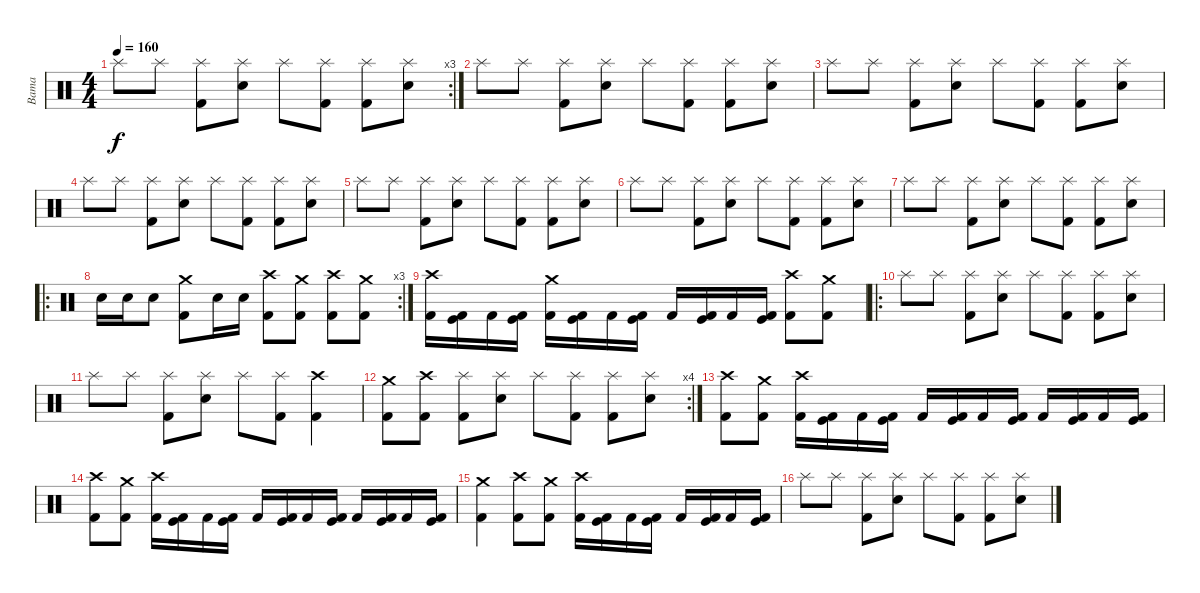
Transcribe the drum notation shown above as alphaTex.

\track ("Bama" "Bama") {instrument percussion}
\staff {score}
\articulation defaults
\rc 3
\ts (4 4)
\tempo 160
\clef neutral
\ks c "Splash (hit)".8{dy f} "Splash (hit)".8
("Splash (hit)" "Kick (hit) 2").8 ("Splash (hit)" "Electric Snare (hit)").8 "Splash (hit)".8 ("Splash (hit)" "Kick (hit) 2").8 ("Splash (hit)" "Kick (hit) 2").8 ("Splash (hit)" "Electric Snare (hit)").8 |
"Splash (hit)".8 "Splash (hit)".8 ("Splash (hit)" "Kick (hit) 2").8 ("Splash (hit)" "Electric Snare (hit)").8 "Splash (hit)".8 ("Splash (hit)" "Kick (hit) 2").8 ("Splash (hit)" "Kick (hit) 2").8 ("Splash (hit)" "Electric Snare (hit)").8 |
"Splash (hit)".8 "Splash (hit)".8 ("Splash (hit)" "Kick (hit) 2").8 ("Splash (hit)" "Electric Snare (hit)").8 "Splash (hit)".8 ("Splash (hit)" "Kick (hit) 2").8 ("Splash (hit)" "Kick (hit) 2").8 ("Splash (hit)" "Electric Snare (hit)").8 |
"Splash (hit)".8 "Splash (hit)".8 ("Splash (hit)" "Kick (hit) 2").8 ("Splash (hit)" "Electric Snare (hit)").8 "Splash (hit)".8 ("Splash (hit)" "Kick (hit) 2").8 ("Splash (hit)" "Kick (hit) 2").8 ("Splash (hit)" "Electric Snare (hit)").8 |
"Splash (hit)".8 "Splash (hit)".8 ("Splash (hit)" "Kick (hit) 2").8 ("Splash (hit)" "Electric Snare (hit)").8 "Splash (hit)".8 ("Splash (hit)" "Kick (hit) 2").8 ("Splash (hit)" "Kick (hit) 2").8 ("Splash (hit)" "Electric Snare (hit)").8 |
"Splash (hit)".8 "Splash (hit)".8 ("Splash (hit)" "Kick (hit) 2").8 ("Splash (hit)" "Electric Snare (hit)").8 "Splash (hit)".8 ("Splash (hit)" "Kick (hit) 2").8 ("Splash (hit)" "Kick (hit) 2").8 ("Splash (hit)" "Electric Snare (hit)").8 |
"Splash (hit)".8 "Splash (hit)".8 ("Splash (hit)" "Kick (hit) 2").8 ("Splash (hit)" "Electric Snare (hit)").8 "Splash (hit)".8 ("Splash (hit)" "Kick (hit) 2").8 ("Splash (hit)" "Kick (hit) 2").8 ("Splash (hit)" "Electric Snare (hit)").8 |
\ro
\rc 3 "Electric Snare (hit)".16 "Electric Snare (hit)".16 "Electric Snare (hit)".8
("Crash medium (hit)" "Kick (hit) 2").8 "Electric Snare (hit)".16 "Electric Snare (hit)".16 ("Crash high (hit)" "Kick (hit) 2").8 ("Crash medium (hit)" "Kick (hit) 2").8 ("Crash high (hit)" "Kick (hit) 2").8 ("Crash medium (hit)" "Kick (hit) 2").8 |
("Crash high (hit)" "Kick (hit) 2").16 ("Kick (hit)" "Kick (hit) 2").16 "Kick (hit) 2".16 ("Kick (hit)" "Kick (hit) 2").16 ("Crash medium (hit)" "Kick (hit) 2").16 ("Kick (hit)" "Kick (hit) 2").16 "Kick (hit) 2".16 ("Kick (hit)" "Kick (hit) 2").16 "Kick (hit) 2".16 ("Kick (hit)" "Kick (hit) 2").16 "Kick (hit) 2".16 ("Kick (hit)" "Kick (hit) 2").16 ("Crash high (hit)" "Kick (hit) 2").8 ("Crash medium (hit)" "Kick (hit) 2").8 |
\ro "Splash (hit)".8 "Splash (hit)".8
("Splash (hit)" "Kick (hit) 2").8 ("Splash (hit)" "Electric Snare (hit)").8 "Splash (hit)".8 ("Splash (hit)" "Kick (hit) 2").8 ("Splash (hit)" "Kick (hit) 2").8 ("Splash (hit)" "Electric Snare (hit)").8 |
"Splash (hit)".8 "Splash (hit)".8 ("Splash (hit)" "Kick (hit) 2").8 ("Splash (hit)" "Electric Snare (hit)").8 "Splash (hit)".8 ("Splash (hit)" "Kick (hit) 2").8 ("Crash high (hit)" "Kick (hit) 2").4 |
\rc 4
("Crash medium (hit)" "Kick (hit) 2").8 ("Crash high (hit)" "Kick (hit) 2").8 ("Splash (hit)" "Kick (hit) 2").8 ("Splash (hit)" "Electric Snare (hit)").8 "Splash (hit)".8 ("Splash (hit)" "Kick (hit) 2").8 ("Splash (hit)" "Kick (hit) 2").8 ("Splash (hit)" "Electric Snare (hit)").8 |
("Crash high (hit)" "Kick (hit) 2").8 ("Crash medium (hit)" "Kick (hit) 2").8 ("Crash high (hit)" "Kick (hit) 2").16 ("Kick (hit)" "Kick (hit) 2").16 "Kick (hit) 2".16 ("Kick (hit)" "Kick (hit) 2").16 "Kick (hit) 2".16 ("Kick (hit)" "Kick (hit) 2").16 "Kick (hit) 2".16 ("Kick (hit)" "Kick (hit) 2").16 "Kick (hit) 2".16 ("Kick (hit)" "Kick (hit) 2").16 "Kick (hit) 2".16 ("Kick (hit)" "Kick (hit) 2").16 |
("Crash high (hit)" "Kick (hit) 2").8 ("Crash medium (hit)" "Kick (hit) 2").8 ("Crash high (hit)" "Kick (hit) 2").16 ("Kick (hit)" "Kick (hit) 2").16 "Kick (hit) 2".16 ("Kick (hit)" "Kick (hit) 2").16 "Kick (hit) 2".16 ("Kick (hit)" "Kick (hit) 2").16 "Kick (hit) 2".16 ("Kick (hit)" "Kick (hit) 2").16 "Kick (hit) 2".16 ("Kick (hit)" "Kick (hit) 2").16 "Kick (hit) 2".16 ("Kick (hit)" "Kick (hit) 2").16 |
("Crash medium (hit)" "Kick (hit) 2").4 ("Crash high (hit)" "Kick (hit) 2").8 ("Crash medium (hit)" "Kick (hit) 2").8 ("Crash high (hit)" "Kick (hit) 2").16 ("Kick (hit)" "Kick (hit) 2").16 "Kick (hit) 2".16 ("Kick (hit)" "Kick (hit) 2").16 "Kick (hit) 2".16 ("Kick (hit)" "Kick (hit) 2").16 "Kick (hit) 2".16 ("Kick (hit)" "Kick (hit) 2").16 |
"Splash (hit)".8 "Splash (hit)".8 ("Splash (hit)" "Kick (hit) 2").8 ("Splash (hit)" "Electric Snare (hit)").8 "Splash (hit)".8 ("Splash (hit)" "Kick (hit) 2").8 ("Splash (hit)" "Kick (hit) 2").8 ("Splash (hit)" "Electric Snare (hit)").8
